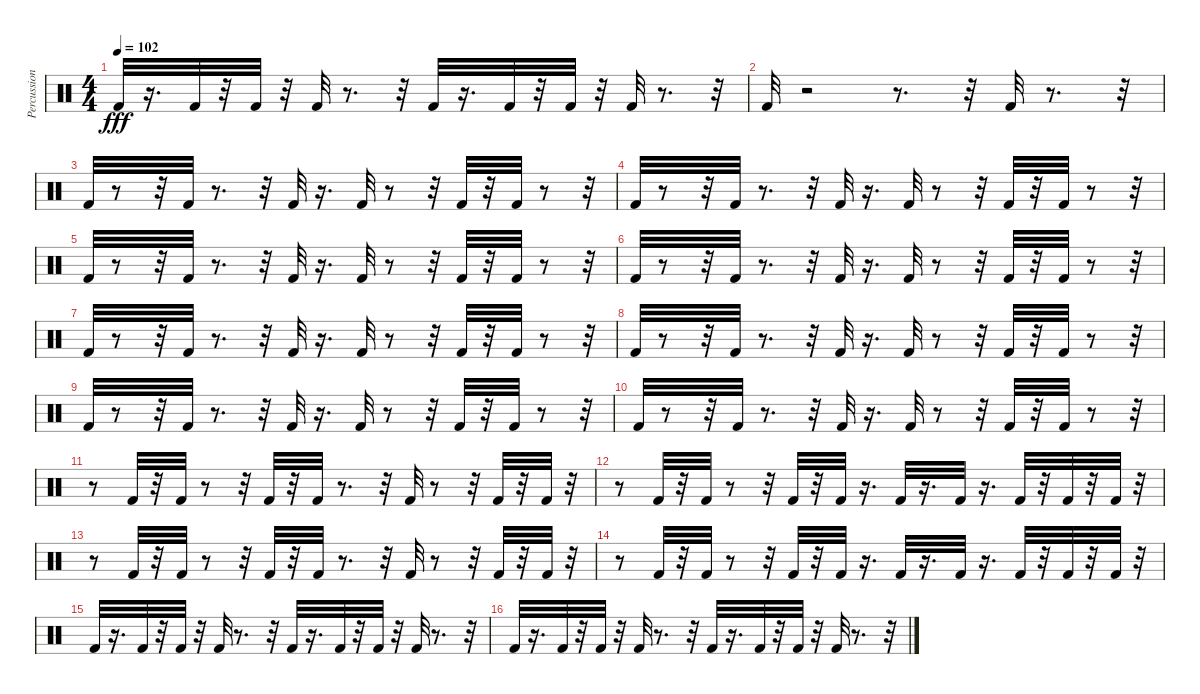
\track ("Percussion" "Percussion") {instrument percussion}
\staff {score}
\articulation defaults
\ts (4 4)
\tempo 102
\clef neutral
\ks c "Kick (hit) 2".32{dy fff}
r.16{d} "Kick (hit) 2".32 r.32 "Kick (hit) 2".32 r.32 "Kick (hit) 2".32 r.8{d} r.32 "Kick (hit) 2".32 r.16{d} "Kick (hit) 2".32 r.32 "Kick (hit) 2".32 r.32 "Kick (hit) 2".32 r.8{d} r.32 |
"Kick (hit) 2".32 r.2 r.8{d} r.32 "Kick (hit) 2".32 r.8{d} r.32 |
"Kick (hit) 2".32 r.8 r.32 "Kick (hit) 2".32 r.8{d} r.32 "Kick (hit) 2".32 r.16{d} "Kick (hit) 2".32 r.8 r.32 "Kick (hit) 2".32 r.32 "Kick (hit) 2".32 r.8 r.32 |
"Kick (hit) 2".32 r.8 r.32 "Kick (hit) 2".32 r.8{d} r.32 "Kick (hit) 2".32 r.16{d} "Kick (hit) 2".32 r.8 r.32 "Kick (hit) 2".32 r.32 "Kick (hit) 2".32 r.8 r.32 |
"Kick (hit) 2".32 r.8 r.32 "Kick (hit) 2".32 r.8{d} r.32 "Kick (hit) 2".32 r.16{d} "Kick (hit) 2".32 r.8 r.32 "Kick (hit) 2".32 r.32 "Kick (hit) 2".32 r.8 r.32 |
"Kick (hit) 2".32 r.8 r.32 "Kick (hit) 2".32 r.8{d} r.32 "Kick (hit) 2".32 r.16{d} "Kick (hit) 2".32 r.8 r.32 "Kick (hit) 2".32 r.32 "Kick (hit) 2".32 r.8 r.32 |
"Kick (hit) 2".32 r.8 r.32 "Kick (hit) 2".32 r.8{d} r.32 "Kick (hit) 2".32 r.16{d} "Kick (hit) 2".32 r.8 r.32 "Kick (hit) 2".32 r.32 "Kick (hit) 2".32 r.8 r.32 |
"Kick (hit) 2".32 r.8 r.32 "Kick (hit) 2".32 r.8{d} r.32 "Kick (hit) 2".32 r.16{d} "Kick (hit) 2".32 r.8 r.32 "Kick (hit) 2".32 r.32 "Kick (hit) 2".32 r.8 r.32 |
"Kick (hit) 2".32 r.8 r.32 "Kick (hit) 2".32 r.8{d} r.32 "Kick (hit) 2".32 r.16{d} "Kick (hit) 2".32 r.8 r.32 "Kick (hit) 2".32 r.32 "Kick (hit) 2".32 r.8 r.32 |
"Kick (hit) 2".32 r.8 r.32 "Kick (hit) 2".32 r.8{d} r.32 "Kick (hit) 2".32 r.16{d} "Kick (hit) 2".32 r.8 r.32 "Kick (hit) 2".32 r.32 "Kick (hit) 2".32 r.8 r.32 |
r.8 "Kick (hit) 2".32 r.32 "Kick (hit) 2".32 r.8 r.32 "Kick (hit) 2".32 r.32 "Kick (hit) 2".32 r.8{d} r.32 "Kick (hit) 2".32 r.8 r.32 "Kick (hit) 2".32 r.32 "Kick (hit) 2".32 r.32 |
r.8 "Kick (hit) 2".32 r.32 "Kick (hit) 2".32 r.8 r.32 "Kick (hit) 2".32 r.32 "Kick (hit) 2".32 r.16{d} "Kick (hit) 2".32 r.16{d} "Kick (hit) 2".32 r.16{d} "Kick (hit) 2".32 r.32 "Kick (hit) 2".32 r.32 "Kick (hit) 2".32 r.32 |
r.8 "Kick (hit) 2".32 r.32 "Kick (hit) 2".32 r.8 r.32 "Kick (hit) 2".32 r.32 "Kick (hit) 2".32 r.8{d} r.32 "Kick (hit) 2".32 r.8 r.32 "Kick (hit) 2".32 r.32 "Kick (hit) 2".32 r.32 |
r.8 "Kick (hit) 2".32 r.32 "Kick (hit) 2".32 r.8 r.32 "Kick (hit) 2".32 r.32 "Kick (hit) 2".32 r.16{d} "Kick (hit) 2".32 r.16{d} "Kick (hit) 2".32 r.16{d} "Kick (hit) 2".32 r.32 "Kick (hit) 2".32 r.32 "Kick (hit) 2".32 r.32 |
"Kick (hit) 2".32 r.16{d} "Kick (hit) 2".32 r.32 "Kick (hit) 2".32 r.32 "Kick (hit) 2".32 r.8{d} r.32 "Kick (hit) 2".32 r.16{d} "Kick (hit) 2".32 r.32 "Kick (hit) 2".32 r.32 "Kick (hit) 2".32 r.8{d} r.32 |
"Kick (hit) 2".32 r.16{d} "Kick (hit) 2".32 r.32 "Kick (hit) 2".32 r.32 "Kick (hit) 2".32 r.8{d} r.32 "Kick (hit) 2".32 r.16{d} "Kick (hit) 2".32 r.32 "Kick (hit) 2".32 r.32 "Kick (hit) 2".32 r.8{d} r.32
